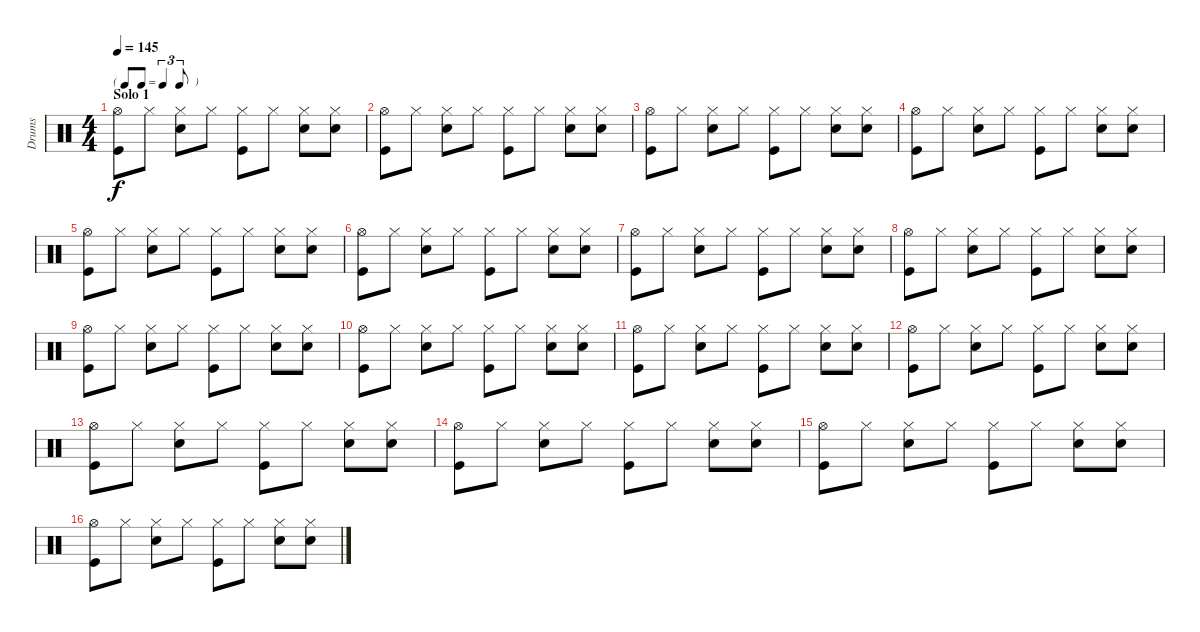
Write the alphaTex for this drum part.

\track ("Drums" "Drums") {instrument percussion}
\staff {score}
\articulation defaults
\ts (4 4)
\tf triplet8th
\section ("" "Solo 1")
\tempo 145
\clef neutral
\ks c
("Kick (hit)" "Hi-Hat (open)").8{dy f} "Hi-Hat (closed)".8 ("Snare (hit) 2" "Hi-Hat (closed)").8 "Hi-Hat (closed)".8 ("Kick (hit)" "Hi-Hat (closed)").8 "Hi-Hat (closed)".8 ("Snare (hit) 2" "Hi-Hat (closed)").8 ("Snare (hit) 2" "Hi-Hat (closed)").8 |
("Kick (hit)" "Hi-Hat (open)").8 "Hi-Hat (closed)".8 ("Snare (hit) 2" "Hi-Hat (closed)").8 "Hi-Hat (closed)".8 ("Kick (hit)" "Hi-Hat (closed)").8 "Hi-Hat (closed)".8 ("Snare (hit) 2" "Hi-Hat (closed)").8 ("Snare (hit) 2" "Hi-Hat (closed)").8 |
("Kick (hit)" "Hi-Hat (open)").8 "Hi-Hat (closed)".8 ("Snare (hit) 2" "Hi-Hat (closed)").8 "Hi-Hat (closed)".8 ("Kick (hit)" "Hi-Hat (closed)").8 "Hi-Hat (closed)".8 ("Snare (hit) 2" "Hi-Hat (closed)").8 ("Snare (hit) 2" "Hi-Hat (closed)").8 |
("Kick (hit)" "Hi-Hat (open)").8 "Hi-Hat (closed)".8 ("Snare (hit) 2" "Hi-Hat (closed)").8 "Hi-Hat (closed)".8 ("Kick (hit)" "Hi-Hat (closed)").8 "Hi-Hat (closed)".8 ("Snare (hit) 2" "Hi-Hat (closed)").8 ("Snare (hit) 2" "Hi-Hat (closed)").8 |
("Kick (hit)" "Hi-Hat (open)").8 "Hi-Hat (closed)".8 ("Snare (hit) 2" "Hi-Hat (closed)").8 "Hi-Hat (closed)".8 ("Kick (hit)" "Hi-Hat (closed)").8 "Hi-Hat (closed)".8 ("Snare (hit) 2" "Hi-Hat (closed)").8 ("Snare (hit) 2" "Hi-Hat (closed)").8 |
("Kick (hit)" "Hi-Hat (open)").8 "Hi-Hat (closed)".8 ("Snare (hit) 2" "Hi-Hat (closed)").8 "Hi-Hat (closed)".8 ("Kick (hit)" "Hi-Hat (closed)").8 "Hi-Hat (closed)".8 ("Snare (hit) 2" "Hi-Hat (closed)").8 ("Snare (hit) 2" "Hi-Hat (closed)").8 |
("Kick (hit)" "Hi-Hat (open)").8 "Hi-Hat (closed)".8 ("Snare (hit) 2" "Hi-Hat (closed)").8 "Hi-Hat (closed)".8 ("Kick (hit)" "Hi-Hat (closed)").8 "Hi-Hat (closed)".8 ("Snare (hit) 2" "Hi-Hat (closed)").8 ("Snare (hit) 2" "Hi-Hat (closed)").8 |
("Kick (hit)" "Hi-Hat (open)").8 "Hi-Hat (closed)".8 ("Snare (hit) 2" "Hi-Hat (closed)").8 "Hi-Hat (closed)".8 ("Kick (hit)" "Hi-Hat (closed)").8 "Hi-Hat (closed)".8 ("Snare (hit) 2" "Hi-Hat (closed)").8 ("Snare (hit) 2" "Hi-Hat (closed)").8 |
("Kick (hit)" "Hi-Hat (open)").8 "Hi-Hat (closed)".8 ("Snare (hit) 2" "Hi-Hat (closed)").8 "Hi-Hat (closed)".8 ("Kick (hit)" "Hi-Hat (closed)").8 "Hi-Hat (closed)".8 ("Snare (hit) 2" "Hi-Hat (closed)").8 ("Snare (hit) 2" "Hi-Hat (closed)").8 |
("Kick (hit)" "Hi-Hat (open)").8 "Hi-Hat (closed)".8 ("Snare (hit) 2" "Hi-Hat (closed)").8 "Hi-Hat (closed)".8 ("Kick (hit)" "Hi-Hat (closed)").8 "Hi-Hat (closed)".8 ("Snare (hit) 2" "Hi-Hat (closed)").8 ("Snare (hit) 2" "Hi-Hat (closed)").8 |
("Kick (hit)" "Hi-Hat (open)").8 "Hi-Hat (closed)".8 ("Snare (hit) 2" "Hi-Hat (closed)").8 "Hi-Hat (closed)".8 ("Kick (hit)" "Hi-Hat (closed)").8 "Hi-Hat (closed)".8 ("Snare (hit) 2" "Hi-Hat (closed)").8 ("Snare (hit) 2" "Hi-Hat (closed)").8 |
("Kick (hit)" "Hi-Hat (open)").8 "Hi-Hat (closed)".8 ("Snare (hit) 2" "Hi-Hat (closed)").8 "Hi-Hat (closed)".8 ("Kick (hit)" "Hi-Hat (closed)").8 "Hi-Hat (closed)".8 ("Snare (hit) 2" "Hi-Hat (closed)").8 ("Snare (hit) 2" "Hi-Hat (closed)").8 |
("Kick (hit)" "Hi-Hat (open)").8 "Hi-Hat (closed)".8 ("Snare (hit) 2" "Hi-Hat (closed)").8 "Hi-Hat (closed)".8 ("Kick (hit)" "Hi-Hat (closed)").8 "Hi-Hat (closed)".8 ("Snare (hit) 2" "Hi-Hat (closed)").8 ("Snare (hit) 2" "Hi-Hat (closed)").8 |
("Kick (hit)" "Hi-Hat (open)").8 "Hi-Hat (closed)".8 ("Snare (hit) 2" "Hi-Hat (closed)").8 "Hi-Hat (closed)".8 ("Kick (hit)" "Hi-Hat (closed)").8 "Hi-Hat (closed)".8 ("Snare (hit) 2" "Hi-Hat (closed)").8 ("Snare (hit) 2" "Hi-Hat (closed)").8 |
("Kick (hit)" "Hi-Hat (open)").8 "Hi-Hat (closed)".8 ("Snare (hit) 2" "Hi-Hat (closed)").8 "Hi-Hat (closed)".8 ("Kick (hit)" "Hi-Hat (closed)").8 "Hi-Hat (closed)".8 ("Snare (hit) 2" "Hi-Hat (closed)").8 ("Snare (hit) 2" "Hi-Hat (closed)").8 |
("Kick (hit)" "Hi-Hat (open)").8 "Hi-Hat (closed)".8 ("Snare (hit) 2" "Hi-Hat (closed)").8 "Hi-Hat (closed)".8 ("Kick (hit)" "Hi-Hat (closed)").8 "Hi-Hat (closed)".8 ("Snare (hit) 2" "Hi-Hat (closed)").8 ("Snare (hit) 2" "Hi-Hat (closed)").8
